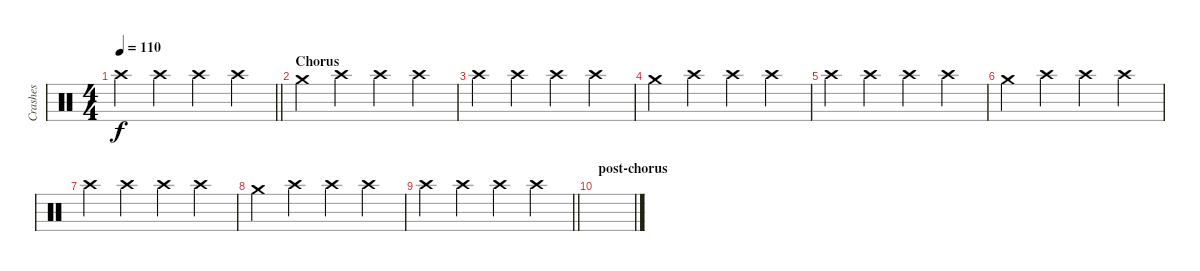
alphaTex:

\track ("Crashes" "Crashes") {instrument percussion}
\staff {score}
\articulation defaults
\ts (4 4)
\tempo 110
\clef neutral
\barLineRight lightlight
\ks c "Crash high (hit)".4{dy f} "Crash high (hit)".4 "Crash high (hit)".4 "Crash high (hit)".4
|
\section ("" "Chorus")
"Crash medium (hit)".4 "Crash high (hit)".4 "Crash high (hit)".4 "Crash high (hit)".4 |
"Crash high (hit)".4 "Crash high (hit)".4 "Crash high (hit)".4 "Crash high (hit)".4 |
"Crash medium (hit)".4 "Crash high (hit)".4 "Crash high (hit)".4 "Crash high (hit)".4 |
"Crash high (hit)".4 "Crash high (hit)".4 "Crash high (hit)".4 "Crash high (hit)".4 |
"Crash medium (hit)".4 "Crash high (hit)".4 "Crash high (hit)".4 "Crash high (hit)".4 |
"Crash high (hit)".4 "Crash high (hit)".4 "Crash high (hit)".4 "Crash high (hit)".4 |
"Crash medium (hit)".4 "Crash high (hit)".4 "Crash high (hit)".4 "Crash high (hit)".4 |
\barLineRight lightlight "Crash high (hit)".4 "Crash high (hit)".4 "Crash high (hit)".4 "Crash high (hit)".4
|
\section ("" "post-chorus")
